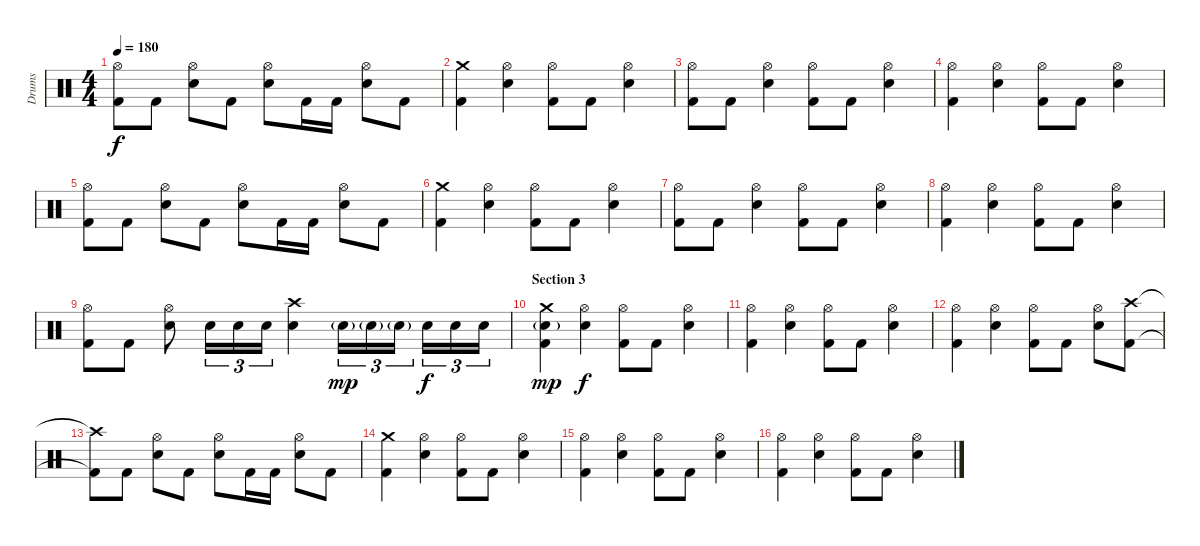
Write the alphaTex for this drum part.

\track ("Drums" "Drums") {instrument percussion}
\staff {score}
\articulation defaults
\ts (4 4)
\tempo 180
\clef neutral
\ks c
("Hi-Hat (open)" "Kick (hit) 2").8{dy f} "Kick (hit) 2".8 ("Hi-Hat (open)" "Electric Snare (hit)").8 "Kick (hit) 2".8 ("Hi-Hat (open)" "Electric Snare (hit)").8 "Kick (hit) 2".16 "Kick (hit) 2".16 ("Hi-Hat (open)" "Electric Snare (hit)").8 "Kick (hit) 2".8 |
("Crash medium (hit)" "Kick (hit) 2").4 ("Hi-Hat (open)" "Electric Snare (hit)").4 ("Hi-Hat (open)" "Kick (hit) 2").8 "Kick (hit) 2".8 ("Hi-Hat (open)" "Electric Snare (hit)").4 |
("Hi-Hat (open)" "Kick (hit) 2").8 "Kick (hit) 2".8 ("Hi-Hat (open)" "Electric Snare (hit)").4 ("Hi-Hat (open)" "Kick (hit) 2").8 "Kick (hit) 2".8 ("Hi-Hat (open)" "Electric Snare (hit)").4 |
("Hi-Hat (open)" "Kick (hit) 2").4 ("Hi-Hat (open)" "Electric Snare (hit)").4 ("Hi-Hat (open)" "Kick (hit) 2").8 "Kick (hit) 2".8 ("Hi-Hat (open)" "Electric Snare (hit)").4 |
("Hi-Hat (open)" "Kick (hit) 2").8 "Kick (hit) 2".8 ("Hi-Hat (open)" "Electric Snare (hit)").8 "Kick (hit) 2".8 ("Hi-Hat (open)" "Electric Snare (hit)").8 "Kick (hit) 2".16 "Kick (hit) 2".16 ("Hi-Hat (open)" "Electric Snare (hit)").8 "Kick (hit) 2".8 |
("Crash medium (hit)" "Kick (hit) 2").4 ("Hi-Hat (open)" "Electric Snare (hit)").4 ("Hi-Hat (open)" "Kick (hit) 2").8 "Kick (hit) 2".8 ("Hi-Hat (open)" "Electric Snare (hit)").4 |
("Hi-Hat (open)" "Kick (hit) 2").8 "Kick (hit) 2".8 ("Hi-Hat (open)" "Electric Snare (hit)").4 ("Hi-Hat (open)" "Kick (hit) 2").8 "Kick (hit) 2".8 ("Hi-Hat (open)" "Electric Snare (hit)").4 |
("Hi-Hat (open)" "Kick (hit) 2").4 ("Hi-Hat (open)" "Electric Snare (hit)").4 ("Hi-Hat (open)" "Kick (hit) 2").8 "Kick (hit) 2".8 ("Hi-Hat (open)" "Electric Snare (hit)").4 |
("Hi-Hat (open)" "Kick (hit) 2").8 "Kick (hit) 2".8 ("Hi-Hat (open)" "Electric Snare (hit)").8 "Electric Snare (hit)".16{tu (3 2)} "Electric Snare (hit)".16{tu (3 2)} "Electric Snare (hit)".16{tu (3 2)} ("Crash high (hit)" "Electric Snare (hit)").4 "Electric Snare (hit)"{g}.16{tu (3 2) dy mp} "Electric Snare (hit)"{g}.16{tu (3 2)} "Electric Snare (hit)"{g}.16{tu (3 2) beam splitsecondary} "Electric Snare (hit)".16{tu (3 2) dy f} "Electric Snare (hit)".16{tu (3 2)} "Electric Snare (hit)".16{tu (3 2)} |
\section ("" "Section 3")
("Crash medium (hit)" "Electric Snare (hit)"{g} "Kick (hit) 2").4{dy mp} ("Hi-Hat (open)" "Electric Snare (hit)").4{dy f} ("Hi-Hat (open)" "Kick (hit) 2").8 "Kick (hit) 2".8 ("Hi-Hat (open)" "Electric Snare (hit)").4 |
("Hi-Hat (open)" "Kick (hit) 2").4 ("Hi-Hat (open)" "Electric Snare (hit)").4 ("Hi-Hat (open)" "Kick (hit) 2").8 "Kick (hit) 2".8 ("Hi-Hat (open)" "Electric Snare (hit)").4 |
("Hi-Hat (open)" "Kick (hit) 2").4 ("Hi-Hat (open)" "Electric Snare (hit)").4 ("Hi-Hat (open)" "Kick (hit) 2").8 "Kick (hit) 2".8 ("Hi-Hat (open)" "Electric Snare (hit)").8 ("Crash high (hit)" "Kick (hit) 2").8 |
("Crash high (hit)"{t} "Kick (hit) 2"{t}).8 "Kick (hit) 2".8 ("Hi-Hat (open)" "Electric Snare (hit)").8 "Kick (hit) 2".8 ("Hi-Hat (open)" "Electric Snare (hit)").8 "Kick (hit) 2".16 "Kick (hit) 2".16 ("Hi-Hat (open)" "Electric Snare (hit)").8 "Kick (hit) 2".8 |
("Crash medium (hit)" "Kick (hit) 2").4 ("Hi-Hat (open)" "Electric Snare (hit)").4 ("Hi-Hat (open)" "Kick (hit) 2").8 "Kick (hit) 2".8 ("Hi-Hat (open)" "Electric Snare (hit)").4 |
("Hi-Hat (open)" "Kick (hit) 2").4 ("Hi-Hat (open)" "Electric Snare (hit)").4 ("Hi-Hat (open)" "Kick (hit) 2").8 "Kick (hit) 2".8 ("Hi-Hat (open)" "Electric Snare (hit)").4 |
("Hi-Hat (open)" "Kick (hit) 2").4 ("Hi-Hat (open)" "Electric Snare (hit)").4 ("Hi-Hat (open)" "Kick (hit) 2").8 "Kick (hit) 2".8 ("Hi-Hat (open)" "Electric Snare (hit)").4
